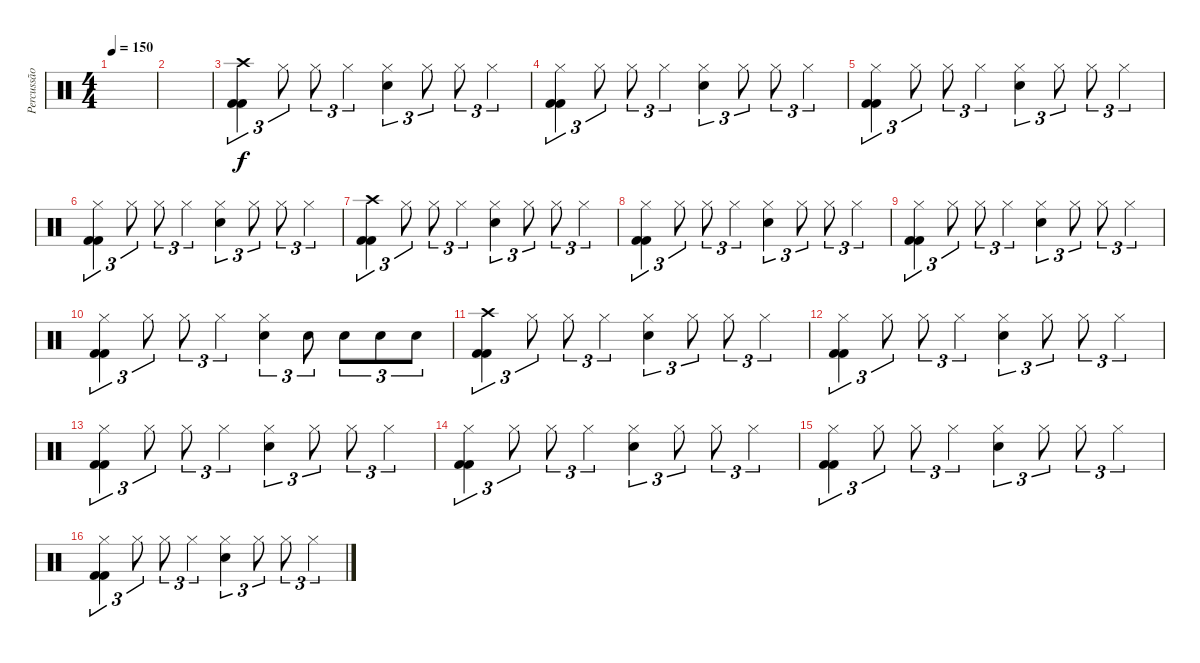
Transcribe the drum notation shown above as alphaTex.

\track ("Percussão" "Percussão") {instrument percussion}
\staff {score}
\articulation defaults
\ts (4 4)
\tempo 150
\clef neutral
\ks c
|
|
("Crash high (hit)" "Kick (hit) 2" "Kick (hit) 2").4{tu (3 2)} "Hi-Hat (closed)".8{tu (3 2)} "Hi-Hat (closed)".8{tu (3 2)} "Hi-Hat (closed)".4{tu (3 2)} ("Hi-Hat (closed)" "Electric Snare (hit)").4{tu (3 2)} "Hi-Hat (closed)".8{tu (3 2)} "Hi-Hat (closed)".8{tu (3 2)} "Hi-Hat (closed)".4{tu (3 2)} |
("Hi-Hat (closed)" "Kick (hit) 2" "Kick (hit) 2").4{tu (3 2)} "Hi-Hat (closed)".8{tu (3 2)} "Hi-Hat (closed)".8{tu (3 2)} "Hi-Hat (closed)".4{tu (3 2)} ("Hi-Hat (closed)" "Electric Snare (hit)").4{tu (3 2)} "Hi-Hat (closed)".8{tu (3 2)} "Hi-Hat (closed)".8{tu (3 2)} "Hi-Hat (closed)".4{tu (3 2)} |
("Hi-Hat (closed)" "Kick (hit) 2" "Kick (hit) 2").4{tu (3 2)} "Hi-Hat (closed)".8{tu (3 2)} "Hi-Hat (closed)".8{tu (3 2)} "Hi-Hat (closed)".4{tu (3 2)} ("Hi-Hat (closed)" "Electric Snare (hit)").4{tu (3 2)} "Hi-Hat (closed)".8{tu (3 2)} "Hi-Hat (closed)".8{tu (3 2)} "Hi-Hat (closed)".4{tu (3 2)} |
("Hi-Hat (closed)" "Kick (hit) 2" "Kick (hit) 2").4{tu (3 2)} "Hi-Hat (closed)".8{tu (3 2)} "Hi-Hat (closed)".8{tu (3 2)} "Hi-Hat (closed)".4{tu (3 2)} ("Hi-Hat (closed)" "Electric Snare (hit)").4{tu (3 2)} "Hi-Hat (closed)".8{tu (3 2)} "Hi-Hat (closed)".8{tu (3 2)} "Hi-Hat (closed)".4{tu (3 2)} |
("Crash high (hit)" "Kick (hit) 2" "Kick (hit) 2").4{tu (3 2)} "Hi-Hat (closed)".8{tu (3 2)} "Hi-Hat (closed)".8{tu (3 2)} "Hi-Hat (closed)".4{tu (3 2)} ("Hi-Hat (closed)" "Electric Snare (hit)").4{tu (3 2)} "Hi-Hat (closed)".8{tu (3 2)} "Hi-Hat (closed)".8{tu (3 2)} "Hi-Hat (closed)".4{tu (3 2)} |
("Hi-Hat (closed)" "Kick (hit) 2" "Kick (hit) 2").4{tu (3 2)} "Hi-Hat (closed)".8{tu (3 2)} "Hi-Hat (closed)".8{tu (3 2)} "Hi-Hat (closed)".4{tu (3 2)} ("Hi-Hat (closed)" "Electric Snare (hit)").4{tu (3 2)} "Hi-Hat (closed)".8{tu (3 2)} "Hi-Hat (closed)".8{tu (3 2)} "Hi-Hat (closed)".4{tu (3 2)} |
("Hi-Hat (closed)" "Kick (hit) 2" "Kick (hit) 2").4{tu (3 2)} "Hi-Hat (closed)".8{tu (3 2)} "Hi-Hat (closed)".8{tu (3 2)} "Hi-Hat (closed)".4{tu (3 2)} ("Hi-Hat (closed)" "Electric Snare (hit)").4{tu (3 2)} "Hi-Hat (closed)".8{tu (3 2)} "Hi-Hat (closed)".8{tu (3 2)} "Hi-Hat (closed)".4{tu (3 2)} |
("Hi-Hat (closed)" "Kick (hit) 2" "Kick (hit) 2").4{tu (3 2)} "Hi-Hat (closed)".8{tu (3 2)} "Hi-Hat (closed)".8{tu (3 2)} "Hi-Hat (closed)".4{tu (3 2)} ("Hi-Hat (closed)" "Electric Snare (hit)").4{tu (3 2)} "Electric Snare (hit)".8{tu (3 2)} "Electric Snare (hit)".8{tu (3 2)} "Electric Snare (hit)".8{tu (3 2)} "Electric Snare (hit)".8{tu (3 2)} |
("Crash high (hit)" "Kick (hit) 2" "Kick (hit) 2").4{tu (3 2)} "Hi-Hat (closed)".8{tu (3 2)} "Hi-Hat (closed)".8{tu (3 2)} "Hi-Hat (closed)".4{tu (3 2)} ("Hi-Hat (closed)" "Electric Snare (hit)").4{tu (3 2)} "Hi-Hat (closed)".8{tu (3 2)} "Hi-Hat (closed)".8{tu (3 2)} "Hi-Hat (closed)".4{tu (3 2)} |
("Hi-Hat (closed)" "Kick (hit) 2" "Kick (hit) 2").4{tu (3 2)} "Hi-Hat (closed)".8{tu (3 2)} "Hi-Hat (closed)".8{tu (3 2)} "Hi-Hat (closed)".4{tu (3 2)} ("Hi-Hat (closed)" "Electric Snare (hit)").4{tu (3 2)} "Hi-Hat (closed)".8{tu (3 2)} "Hi-Hat (closed)".8{tu (3 2)} "Hi-Hat (closed)".4{tu (3 2)} |
("Hi-Hat (closed)" "Kick (hit) 2" "Kick (hit) 2").4{tu (3 2)} "Hi-Hat (closed)".8{tu (3 2)} "Hi-Hat (closed)".8{tu (3 2)} "Hi-Hat (closed)".4{tu (3 2)} ("Hi-Hat (closed)" "Electric Snare (hit)").4{tu (3 2)} "Hi-Hat (closed)".8{tu (3 2)} "Hi-Hat (closed)".8{tu (3 2)} "Hi-Hat (closed)".4{tu (3 2)} |
("Hi-Hat (closed)" "Kick (hit) 2" "Kick (hit) 2").4{tu (3 2)} "Hi-Hat (closed)".8{tu (3 2)} "Hi-Hat (closed)".8{tu (3 2)} "Hi-Hat (closed)".4{tu (3 2)} ("Hi-Hat (closed)" "Electric Snare (hit)").4{tu (3 2)} "Hi-Hat (closed)".8{tu (3 2)} "Hi-Hat (closed)".8{tu (3 2)} "Hi-Hat (closed)".4{tu (3 2)} |
("Hi-Hat (closed)" "Kick (hit) 2" "Kick (hit) 2").4{tu (3 2)} "Hi-Hat (closed)".8{tu (3 2)} "Hi-Hat (closed)".8{tu (3 2)} "Hi-Hat (closed)".4{tu (3 2)} ("Hi-Hat (closed)" "Electric Snare (hit)").4{tu (3 2)} "Hi-Hat (closed)".8{tu (3 2)} "Hi-Hat (closed)".8{tu (3 2)} "Hi-Hat (closed)".4{tu (3 2)} |
("Hi-Hat (closed)" "Kick (hit) 2" "Kick (hit) 2").4{tu (3 2)} "Hi-Hat (closed)".8{tu (3 2)} "Hi-Hat (closed)".8{tu (3 2)} "Hi-Hat (closed)".4{tu (3 2)} ("Hi-Hat (closed)" "Electric Snare (hit)").4{tu (3 2)} "Hi-Hat (closed)".8{tu (3 2)} "Hi-Hat (closed)".8{tu (3 2)} "Hi-Hat (closed)".4{tu (3 2)}
